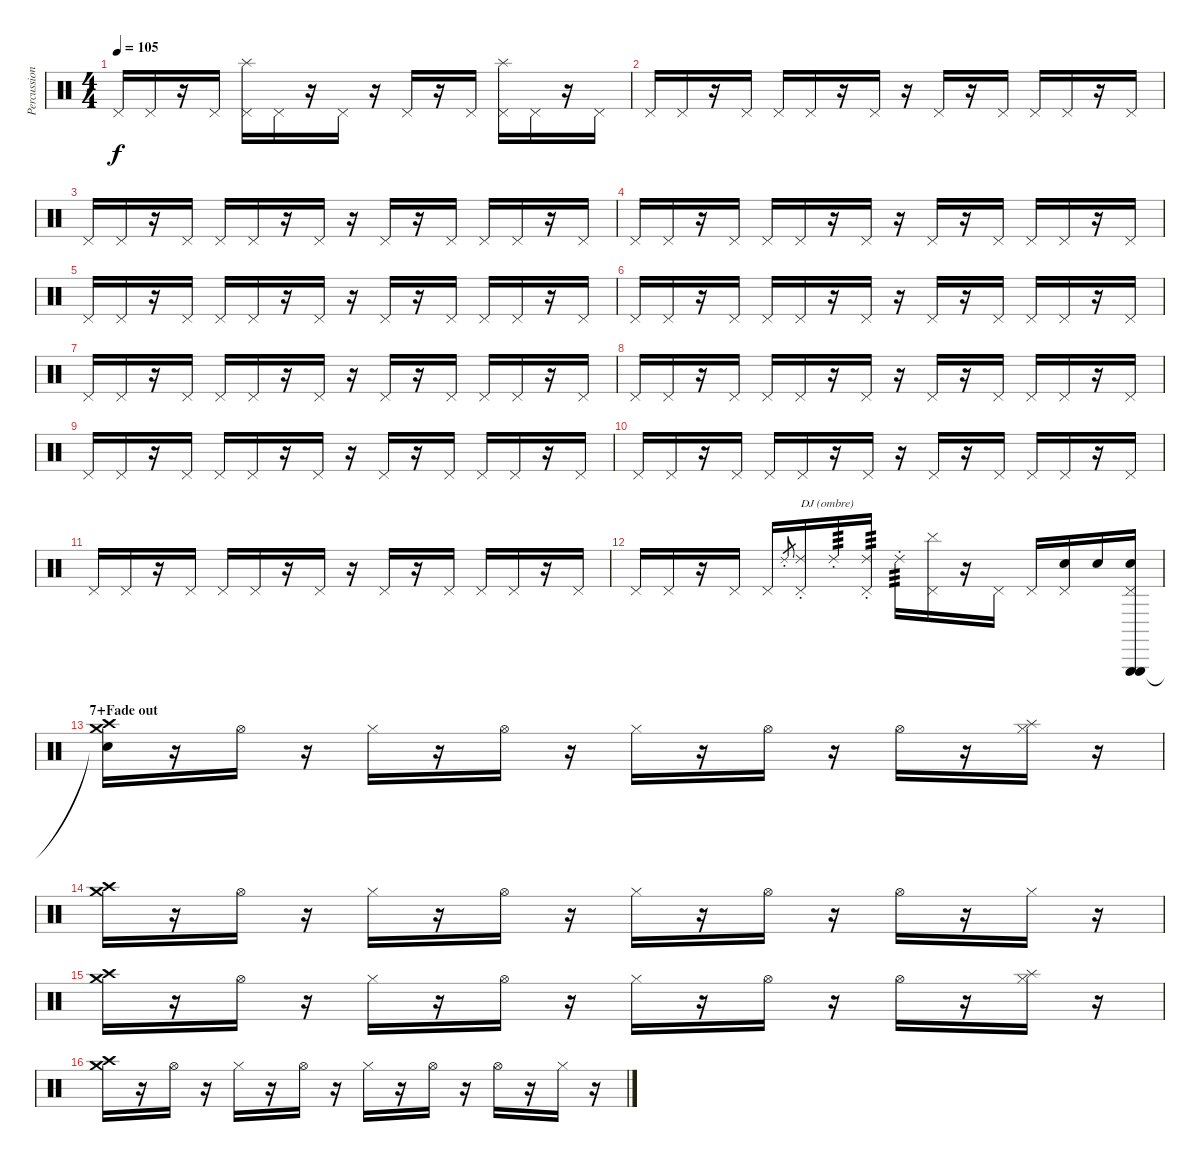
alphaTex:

\track ("Percussions+(scratchs Dj ombre)" "Percussion") {instrument percussion}
\staff {score}
\articulation defaults
\ts (4 4)
\tempo 105
\clef neutral
\ks c "Pedal Hi-Hat (hit)".16{dy f} "Pedal Hi-Hat (hit)".16
r.16 "Pedal Hi-Hat (hit)".16 ("Pedal Hi-Hat (hit)" "Splash (hit)").16{volume 10 balance 16} "Pedal Hi-Hat (hit)".16{volume 10 balance 8} r.16 "Pedal Hi-Hat (hit)".16 r.16 "Pedal Hi-Hat (hit)".16 r.16 "Pedal Hi-Hat (hit)".16 ("Pedal Hi-Hat (hit)" "Splash (hit)").16{balance 0} "Pedal Hi-Hat (hit)".16{balance 8} r.16 "Pedal Hi-Hat (hit)".16 |
"Pedal Hi-Hat (hit)".16 "Pedal Hi-Hat (hit)".16 r.16 "Pedal Hi-Hat (hit)".16 "Pedal Hi-Hat (hit)".16 "Pedal Hi-Hat (hit)".16 r.16 "Pedal Hi-Hat (hit)".16 r.16 "Pedal Hi-Hat (hit)".16 r.16 "Pedal Hi-Hat (hit)".16 "Pedal Hi-Hat (hit)".16 "Pedal Hi-Hat (hit)".16 r.16 "Pedal Hi-Hat (hit)".16 |
"Pedal Hi-Hat (hit)".16 "Pedal Hi-Hat (hit)".16 r.16 "Pedal Hi-Hat (hit)".16 "Pedal Hi-Hat (hit)".16 "Pedal Hi-Hat (hit)".16 r.16 "Pedal Hi-Hat (hit)".16 r.16 "Pedal Hi-Hat (hit)".16 r.16 "Pedal Hi-Hat (hit)".16 "Pedal Hi-Hat (hit)".16 "Pedal Hi-Hat (hit)".16 r.16 "Pedal Hi-Hat (hit)".16 |
"Pedal Hi-Hat (hit)".16 "Pedal Hi-Hat (hit)".16 r.16 "Pedal Hi-Hat (hit)".16 "Pedal Hi-Hat (hit)".16 "Pedal Hi-Hat (hit)".16 r.16 "Pedal Hi-Hat (hit)".16 r.16 "Pedal Hi-Hat (hit)".16 r.16 "Pedal Hi-Hat (hit)".16 "Pedal Hi-Hat (hit)".16 "Pedal Hi-Hat (hit)".16 r.16 "Pedal Hi-Hat (hit)".16 |
"Pedal Hi-Hat (hit)".16 "Pedal Hi-Hat (hit)".16 r.16 "Pedal Hi-Hat (hit)".16 "Pedal Hi-Hat (hit)".16 "Pedal Hi-Hat (hit)".16 r.16 "Pedal Hi-Hat (hit)".16 r.16 "Pedal Hi-Hat (hit)".16 r.16 "Pedal Hi-Hat (hit)".16 "Pedal Hi-Hat (hit)".16 "Pedal Hi-Hat (hit)".16 r.16 "Pedal Hi-Hat (hit)".16 |
"Pedal Hi-Hat (hit)".16 "Pedal Hi-Hat (hit)".16 r.16 "Pedal Hi-Hat (hit)".16 "Pedal Hi-Hat (hit)".16 "Pedal Hi-Hat (hit)".16 r.16 "Pedal Hi-Hat (hit)".16 r.16 "Pedal Hi-Hat (hit)".16 r.16 "Pedal Hi-Hat (hit)".16 "Pedal Hi-Hat (hit)".16 "Pedal Hi-Hat (hit)".16 r.16 "Pedal Hi-Hat (hit)".16 |
"Pedal Hi-Hat (hit)".16 "Pedal Hi-Hat (hit)".16 r.16 "Pedal Hi-Hat (hit)".16 "Pedal Hi-Hat (hit)".16 "Pedal Hi-Hat (hit)".16 r.16 "Pedal Hi-Hat (hit)".16 r.16 "Pedal Hi-Hat (hit)".16 r.16 "Pedal Hi-Hat (hit)".16 "Pedal Hi-Hat (hit)".16 "Pedal Hi-Hat (hit)".16 r.16 "Pedal Hi-Hat (hit)".16 |
"Pedal Hi-Hat (hit)".16 "Pedal Hi-Hat (hit)".16 r.16 "Pedal Hi-Hat (hit)".16 "Pedal Hi-Hat (hit)".16 "Pedal Hi-Hat (hit)".16 r.16 "Pedal Hi-Hat (hit)".16 r.16 "Pedal Hi-Hat (hit)".16 r.16 "Pedal Hi-Hat (hit)".16 "Pedal Hi-Hat (hit)".16 "Pedal Hi-Hat (hit)".16 r.16 "Pedal Hi-Hat (hit)".16 |
"Pedal Hi-Hat (hit)".16 "Pedal Hi-Hat (hit)".16 r.16 "Pedal Hi-Hat (hit)".16 "Pedal Hi-Hat (hit)".16 "Pedal Hi-Hat (hit)".16 r.16 "Pedal Hi-Hat (hit)".16 r.16 "Pedal Hi-Hat (hit)".16 r.16 "Pedal Hi-Hat (hit)".16 "Pedal Hi-Hat (hit)".16 "Pedal Hi-Hat (hit)".16 r.16 "Pedal Hi-Hat (hit)".16 |
"Pedal Hi-Hat (hit)".16 "Pedal Hi-Hat (hit)".16 r.16 "Pedal Hi-Hat (hit)".16 "Pedal Hi-Hat (hit)".16 "Pedal Hi-Hat (hit)".16 r.16 "Pedal Hi-Hat (hit)".16 r.16 "Pedal Hi-Hat (hit)".16 r.16 "Pedal Hi-Hat (hit)".16 "Pedal Hi-Hat (hit)".16 "Pedal Hi-Hat (hit)".16 r.16 "Pedal Hi-Hat (hit)".16 |
"Pedal Hi-Hat (hit)".16 "Pedal Hi-Hat (hit)".16 r.16 "Pedal Hi-Hat (hit)".16 "Pedal Hi-Hat (hit)".16 "Pedal Hi-Hat (hit)".16 r.16 "Pedal Hi-Hat (hit)".16 r.16 "Pedal Hi-Hat (hit)".16 r.16 "Pedal Hi-Hat (hit)".16 "Pedal Hi-Hat (hit)".16 "Pedal Hi-Hat (hit)".16 r.16 "Pedal Hi-Hat (hit)".16 |
"Pedal Hi-Hat (hit)".16 "Pedal Hi-Hat (hit)".16 r.16 "Pedal Hi-Hat (hit)".16 "Pedal Hi-Hat (hit)".16 "Ride (choke) 2".8{gr} ("Pedal Hi-Hat (hit)" "Ride (choke) 2").16{txt "DJ (ombre)"} "Ride (choke) 2".16{tp 3} ("Pedal Hi-Hat (hit)" "Ride (choke) 2").16{tp 3} "Ride (choke) 2".16{tp 3} ("Pedal Hi-Hat (hit)" "Cymbal (hit)"{tr (29 16)}).16 r.16 "Pedal Hi-Hat (hit)".16 "Pedal Hi-Hat (hit)".16 ("Pedal Hi-Hat (hit)" "Electric Snare (hit)").16 "Snare (hit) 2".16 ("Pedal Hi-Hat (hit)" "Triangle (hit)" "Triangle (hit)" "Electric Snare (hit)").16 |
\section ("" "7+Fade out")
("Crash high (hit)" "Crash medium (hit)" "Snare (hit)"{t}).16 r.16 "Hi-Hat (open)".16 r.16 "Hi-Hat (closed)".16 r.16 "Hi-Hat (open)".16 r.16 "Hi-Hat (closed)".16 r.16 "Hi-Hat (open)".16 r.16 "Hi-Hat (open)".16 r.16 ("Hi-Hat (closed)" "Splash (hit)").16 r.16 |
("Crash high (hit)" "Crash medium (hit)").16 r.16 "Hi-Hat (open)".16 r.16 "Hi-Hat (closed)".16 r.16 "Hi-Hat (open)".16 r.16 "Hi-Hat (closed)".16 r.16 "Hi-Hat (open)".16 r.16 "Hi-Hat (open)".16 r.16 "Hi-Hat (closed)".16 r.16 |
("Crash high (hit)" "Crash medium (hit)").16 r.16 "Hi-Hat (open)".16 r.16 "Hi-Hat (closed)".16 r.16 "Hi-Hat (open)".16 r.16 "Hi-Hat (closed)".16 r.16 "Hi-Hat (open)".16 r.16 "Hi-Hat (open)".16 r.16 ("Hi-Hat (closed)" "Splash (hit)").16 r.16 |
("Crash high (hit)" "Crash medium (hit)").16 r.16 "Hi-Hat (open)".16 r.16 "Hi-Hat (closed)".16 r.16 "Hi-Hat (open)".16 r.16 "Hi-Hat (closed)".16 r.16 "Hi-Hat (open)".16 r.16 "Hi-Hat (open)".16 r.16 "Hi-Hat (closed)".16 r.16
